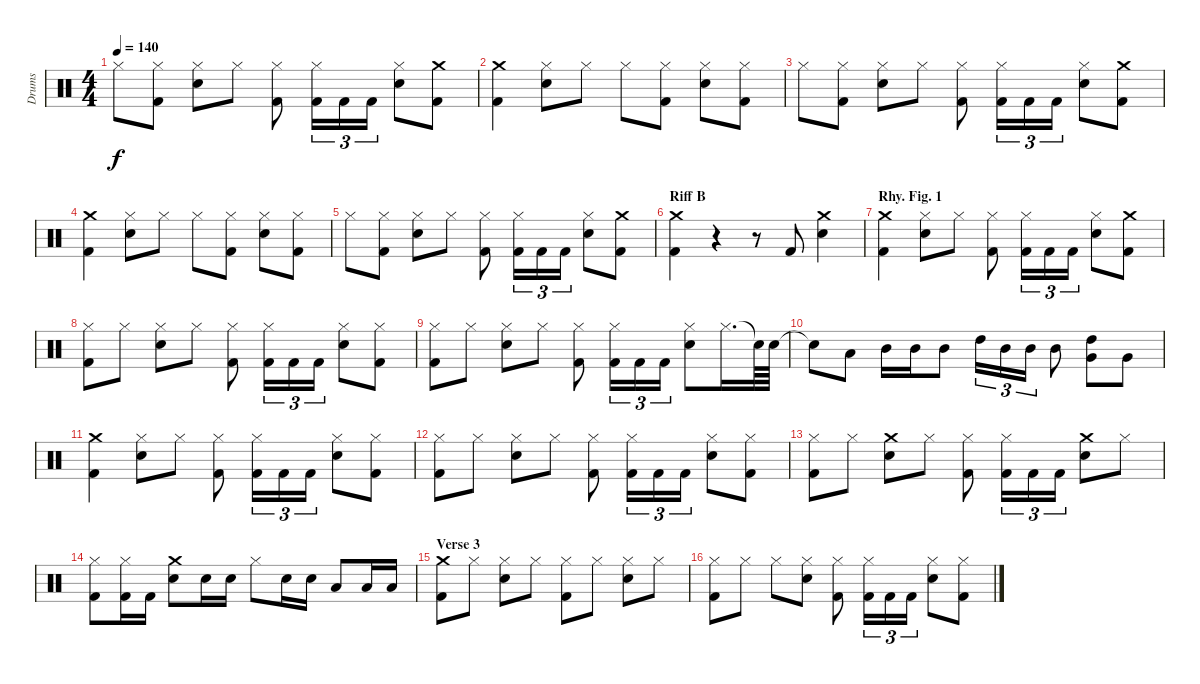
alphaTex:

\track ("Drums" "Drums") {instrument percussion}
\staff {score}
\articulation defaults
\ts (4 4)
\tempo 140
\clef neutral
\ks c "Hi-Hat (closed)".8{dy f}
("Kick (hit) 2" "Hi-Hat (closed)").8 ("Snare (hit) 2" "Hi-Hat (closed)").8 "Hi-Hat (closed)".8 ("Kick (hit) 2" "Hi-Hat (closed)").8 ("Kick (hit) 2" "Hi-Hat (closed)").16{tu (3 2)} "Kick (hit) 2".16{tu (3 2)} "Kick (hit) 2".16{tu (3 2)} ("Snare (hit) 2" "Hi-Hat (closed)").8 ("Kick (hit) 2" "Crash medium (hit)").8 |
("Kick (hit) 2" "Crash medium (hit)").4 ("Snare (hit) 2" "Hi-Hat (closed)").8 "Hi-Hat (closed)".8 "Hi-Hat (closed)".8 ("Kick (hit) 2" "Hi-Hat (closed)").8 ("Snare (hit) 2" "Hi-Hat (closed)").8 ("Kick (hit) 2" "Hi-Hat (closed)").8 |
"Hi-Hat (closed)".8 ("Kick (hit) 2" "Hi-Hat (closed)").8 ("Snare (hit) 2" "Hi-Hat (closed)").8 "Hi-Hat (closed)".8 ("Kick (hit) 2" "Hi-Hat (closed)").8 ("Kick (hit) 2" "Hi-Hat (closed)").16{tu (3 2)} "Kick (hit) 2".16{tu (3 2)} "Kick (hit) 2".16{tu (3 2)} ("Snare (hit) 2" "Hi-Hat (closed)").8 ("Kick (hit) 2" "Crash medium (hit)").8 |
("Kick (hit) 2" "Crash medium (hit)").4 ("Snare (hit) 2" "Hi-Hat (closed)").8 "Hi-Hat (closed)".8 "Hi-Hat (closed)".8 ("Kick (hit) 2" "Hi-Hat (closed)").8 ("Snare (hit) 2" "Hi-Hat (closed)").8 ("Kick (hit) 2" "Hi-Hat (closed)").8 |
"Hi-Hat (closed)".8 ("Kick (hit) 2" "Hi-Hat (closed)").8 ("Snare (hit) 2" "Hi-Hat (closed)").8 "Hi-Hat (closed)".8 ("Kick (hit) 2" "Hi-Hat (closed)").8 ("Kick (hit) 2" "Hi-Hat (closed)").16{tu (3 2)} "Kick (hit) 2".16{tu (3 2)} "Kick (hit) 2".16{tu (3 2)} ("Snare (hit) 2" "Hi-Hat (closed)").8 ("Kick (hit) 2" "Crash medium (hit)").8 |
\section ("" "Riff B")
("Kick (hit) 2" "Crash medium (hit)").4 r.4 r.8 "Kick (hit) 2".8 ("Crash medium (hit)" "Snare (hit) 2").4 |
\section ("" "Rhy. Fig. 1")
("Crash medium (hit)" "Kick (hit) 2").4 ("Snare (hit) 2" "Hi-Hat (closed)").8 "Hi-Hat (closed)".8 ("Kick (hit) 2" "Hi-Hat (closed)").8 ("Kick (hit) 2" "Hi-Hat (closed)").16{tu (3 2)} "Kick (hit) 2".16{tu (3 2)} "Kick (hit) 2".16{tu (3 2)} ("Snare (hit) 2" "Hi-Hat (closed)").8 ("Kick (hit) 2" "Crash medium (hit)").8 |
("Kick (hit) 2" "Hi-Hat (closed)").8 "Hi-Hat (closed)".8 ("Snare (hit) 2" "Hi-Hat (closed)").8 "Hi-Hat (closed)".8 ("Kick (hit) 2" "Hi-Hat (closed)").8 ("Kick (hit) 2" "Hi-Hat (closed)").16{tu (3 2)} "Kick (hit) 2".16{tu (3 2)} "Kick (hit) 2".16{tu (3 2)} ("Snare (hit) 2" "Hi-Hat (closed)").8 ("Hi-Hat (closed)" "Kick (hit) 2").8 |
("Kick (hit) 2" "Hi-Hat (closed)").8 "Hi-Hat (closed)".8 ("Snare (hit) 2" "Hi-Hat (closed)").8 "Hi-Hat (closed)".8 ("Kick (hit) 2" "Hi-Hat (closed)").8 ("Kick (hit) 2" "Hi-Hat (closed)").16{tu (3 2)} "Kick (hit) 2".16{tu (3 2)} "Kick (hit) 2".16{tu (3 2)} ("Snare (hit) 2" "Hi-Hat (closed)").8 "Hi-Hat (closed)".16{d} "Snare (hit)"{t}.64 "Snare (hit) 2".64 |
"Snare (hit)"{t}.8 "Low Tom (hit)".8 "Mid Tom (hit)".16 "Mid Tom (hit)".16 "Mid Tom (hit)".8 "High Tom (hit)".16{tu (3 2)} "Mid Tom (hit)".16{tu (3 2)} "Mid Tom (hit)".16{tu (3 2)} "Mid Tom (hit)".8 ("Very Low Tom (hit)" "High Tom (hit)").8 "Very Low Tom (hit)".8 |
("Crash medium (hit)" "Kick (hit) 2").4 ("Snare (hit) 2" "Hi-Hat (closed)").8 "Hi-Hat (closed)".8 ("Kick (hit) 2" "Hi-Hat (closed)").8 ("Kick (hit) 2" "Hi-Hat (closed)").16{tu (3 2)} "Kick (hit) 2".16{tu (3 2)} "Kick (hit) 2".16{tu (3 2)} ("Snare (hit) 2" "Hi-Hat (closed)").8 ("Hi-Hat (closed)" "Kick (hit) 2").8 |
("Kick (hit) 2" "Hi-Hat (closed)").8 "Hi-Hat (closed)".8 ("Snare (hit) 2" "Hi-Hat (closed)").8 "Hi-Hat (closed)".8 ("Kick (hit) 2" "Hi-Hat (closed)").8 ("Kick (hit) 2" "Hi-Hat (closed)").16{tu (3 2)} "Kick (hit) 2".16{tu (3 2)} "Kick (hit) 2".16{tu (3 2)} ("Snare (hit) 2" "Hi-Hat (closed)").8 ("Hi-Hat (closed)" "Kick (hit) 2").8 |
("Kick (hit) 2" "Hi-Hat (closed)").8 "Hi-Hat (closed)".8 ("Crash medium (hit)" "Snare (hit) 2").8 "Hi-Hat (closed)".8 ("Kick (hit) 2" "Hi-Hat (closed)").8 ("Kick (hit) 2" "Hi-Hat (closed)").16{tu (3 2)} "Kick (hit) 2".16{tu (3 2)} "Kick (hit) 2".16{tu (3 2)} ("Crash medium (hit)" "Snare (hit) 2").8 "Hi-Hat (closed)".8 |
("Kick (hit) 2" "Hi-Hat (closed)").8 ("Kick (hit) 2" "Hi-Hat (closed)").16 "Kick (hit) 2".16 ("Snare (hit) 2" "Crash medium (hit)").8 "Snare (hit) 2".16 "Snare (hit) 2".16 "Hi-Hat (closed)".8 "Snare (hit) 2".16 "Snare (hit) 2".16 "Low Tom (hit)".8 "Low Tom (hit)".16 "Low Tom (hit)".16 |
\section ("" "Verse 3")
("Kick (hit) 2" "Crash medium (hit)").8 "Hi-Hat (closed)".8 ("Snare (hit) 2" "Hi-Hat (closed)").8 "Hi-Hat (closed)".8 ("Kick (hit) 2" "Hi-Hat (closed)").8 "Hi-Hat (closed)".8 ("Snare (hit) 2" "Hi-Hat (closed)").8 "Hi-Hat (closed)".8 |
("Kick (hit) 2" "Hi-Hat (closed)").8 "Hi-Hat (closed)".8 "Hi-Hat (closed)".8 ("Snare (hit) 2" "Hi-Hat (closed)").8 ("Kick (hit) 2" "Hi-Hat (closed)").8 ("Kick (hit) 2" "Hi-Hat (closed)").16{tu (3 2)} "Kick (hit) 2".16{tu (3 2)} "Kick (hit) 2".16{tu (3 2)} ("Snare (hit) 2" "Hi-Hat (closed)").8 ("Kick (hit) 2" "Hi-Hat (closed)").8
